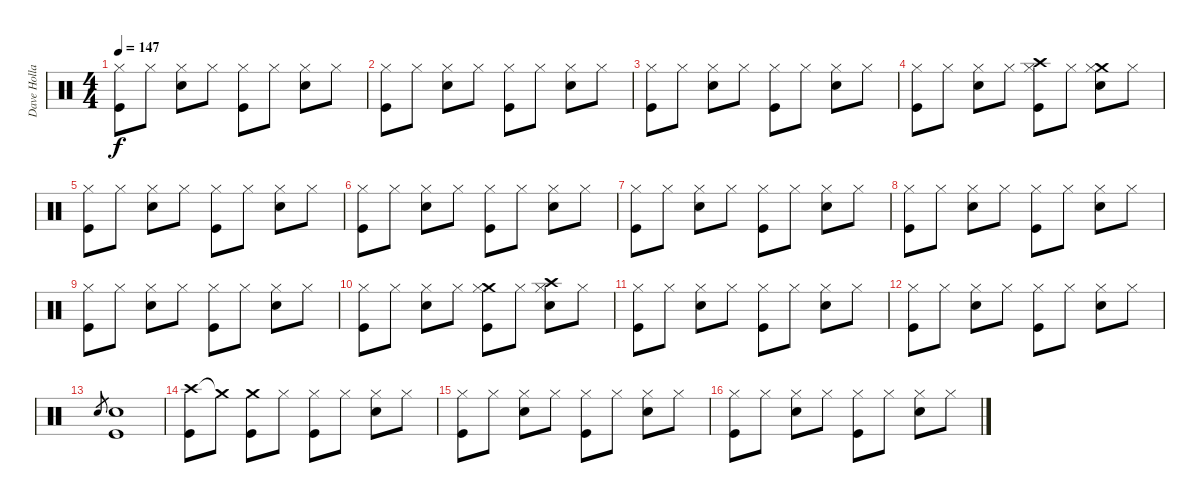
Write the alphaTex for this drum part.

\track ("Dave Holland" "Dave Holla") {instrument percussion}
\staff {score}
\articulation defaults
\ts (4 4)
\tempo 147
\clef neutral
\ks c
("Kick (hit)" "Hi-Hat (closed)").8{dy f} "Hi-Hat (closed)".8 ("Electric Snare (hit)" "Hi-Hat (closed)").8 "Hi-Hat (closed)".8 ("Kick (hit)" "Hi-Hat (closed)").8 "Hi-Hat (closed)".8 ("Electric Snare (hit)" "Hi-Hat (closed)").8 "Hi-Hat (closed)".8 |
("Kick (hit)" "Hi-Hat (closed)").8 "Hi-Hat (closed)".8 ("Electric Snare (hit)" "Hi-Hat (closed)").8 "Hi-Hat (closed)".8 ("Kick (hit)" "Hi-Hat (closed)").8 "Hi-Hat (closed)".8 ("Electric Snare (hit)" "Hi-Hat (closed)").8 "Hi-Hat (closed)".8 |
("Kick (hit)" "Hi-Hat (closed)").8 "Hi-Hat (closed)".8 ("Electric Snare (hit)" "Hi-Hat (closed)").8 "Hi-Hat (closed)".8 ("Kick (hit)" "Hi-Hat (closed)").8 "Hi-Hat (closed)".8 ("Electric Snare (hit)" "Hi-Hat (closed)").8 "Hi-Hat (closed)".8 |
("Kick (hit)" "Hi-Hat (closed)").8 "Hi-Hat (closed)".8 ("Electric Snare (hit)" "Hi-Hat (closed)").8 "Hi-Hat (closed)".8 ("Kick (hit)" "Crash high (hit)" "Hi-Hat (closed)").8 "Hi-Hat (closed)".8 ("Electric Snare (hit)" "Crash medium (hit)" "Hi-Hat (closed)").8 "Hi-Hat (closed)".8 |
("Kick (hit)" "Hi-Hat (closed)").8 "Hi-Hat (closed)".8 ("Electric Snare (hit)" "Hi-Hat (closed)").8 "Hi-Hat (closed)".8 ("Kick (hit)" "Hi-Hat (closed)").8 "Hi-Hat (closed)".8 ("Electric Snare (hit)" "Hi-Hat (closed)").8 "Hi-Hat (closed)".8 |
("Kick (hit)" "Hi-Hat (closed)").8 "Hi-Hat (closed)".8 ("Electric Snare (hit)" "Hi-Hat (closed)").8 "Hi-Hat (closed)".8 ("Kick (hit)" "Hi-Hat (closed)").8 "Hi-Hat (closed)".8 ("Electric Snare (hit)" "Hi-Hat (closed)").8 "Hi-Hat (closed)".8 |
("Kick (hit)" "Hi-Hat (closed)").8 "Hi-Hat (closed)".8 ("Electric Snare (hit)" "Hi-Hat (closed)").8 "Hi-Hat (closed)".8 ("Kick (hit)" "Hi-Hat (closed)").8 "Hi-Hat (closed)".8 ("Electric Snare (hit)" "Hi-Hat (closed)").8 "Hi-Hat (closed)".8 |
("Kick (hit)" "Hi-Hat (closed)").8 "Hi-Hat (closed)".8 ("Electric Snare (hit)" "Hi-Hat (closed)").8 "Hi-Hat (closed)".8 ("Kick (hit)" "Hi-Hat (closed)").8 "Hi-Hat (closed)".8 ("Electric Snare (hit)" "Hi-Hat (closed)").8 "Hi-Hat (closed)".8 |
("Kick (hit)" "Hi-Hat (closed)").8 "Hi-Hat (closed)".8 ("Electric Snare (hit)" "Hi-Hat (closed)").8 "Hi-Hat (closed)".8 ("Kick (hit)" "Hi-Hat (closed)").8 "Hi-Hat (closed)".8 ("Electric Snare (hit)" "Hi-Hat (closed)").8 "Hi-Hat (closed)".8 |
("Kick (hit)" "Hi-Hat (closed)").8 "Hi-Hat (closed)".8 ("Electric Snare (hit)" "Hi-Hat (closed)").8 "Hi-Hat (closed)".8 ("Kick (hit)" "Crash medium (hit)" "Hi-Hat (closed)").8 "Hi-Hat (closed)".8 ("Electric Snare (hit)" "Crash high (hit)" "Hi-Hat (closed)").8 "Hi-Hat (closed)".8 |
("Kick (hit)" "Hi-Hat (closed)").8 "Hi-Hat (closed)".8 ("Electric Snare (hit)" "Hi-Hat (closed)").8 "Hi-Hat (closed)".8 ("Kick (hit)" "Hi-Hat (closed)").8 "Hi-Hat (closed)".8 ("Electric Snare (hit)" "Hi-Hat (closed)").8 "Hi-Hat (closed)".8 |
("Kick (hit)" "Hi-Hat (closed)").8 "Hi-Hat (closed)".8 ("Electric Snare (hit)" "Hi-Hat (closed)").8 "Hi-Hat (closed)".8 ("Kick (hit)" "Hi-Hat (closed)").8 "Hi-Hat (closed)".8 ("Electric Snare (hit)" "Hi-Hat (closed)").8 "Hi-Hat (closed)".8 |
"Electric Snare (hit)".8{gr} ("Kick (hit)" "Electric Snare (hit)").1 |
("Crash high (hit)" "Kick (hit)").8 "Crash medium (hit)"{t}.8 ("Crash medium (hit)" "Kick (hit)").8 "Hi-Hat (closed)".8 ("Kick (hit)" "Hi-Hat (closed)").8 "Hi-Hat (closed)".8 ("Electric Snare (hit)" "Hi-Hat (closed)").8 "Hi-Hat (closed)".8 |
("Kick (hit)" "Hi-Hat (closed)").8 "Hi-Hat (closed)".8 ("Electric Snare (hit)" "Hi-Hat (closed)").8 "Hi-Hat (closed)".8 ("Kick (hit)" "Hi-Hat (closed)").8 "Hi-Hat (closed)".8 ("Electric Snare (hit)" "Hi-Hat (closed)").8 "Hi-Hat (closed)".8 |
("Kick (hit)" "Hi-Hat (closed)").8 "Hi-Hat (closed)".8 ("Electric Snare (hit)" "Hi-Hat (closed)").8 "Hi-Hat (closed)".8 ("Kick (hit)" "Hi-Hat (closed)").8 "Hi-Hat (closed)".8 ("Electric Snare (hit)" "Hi-Hat (closed)").8 "Hi-Hat (closed)".8
